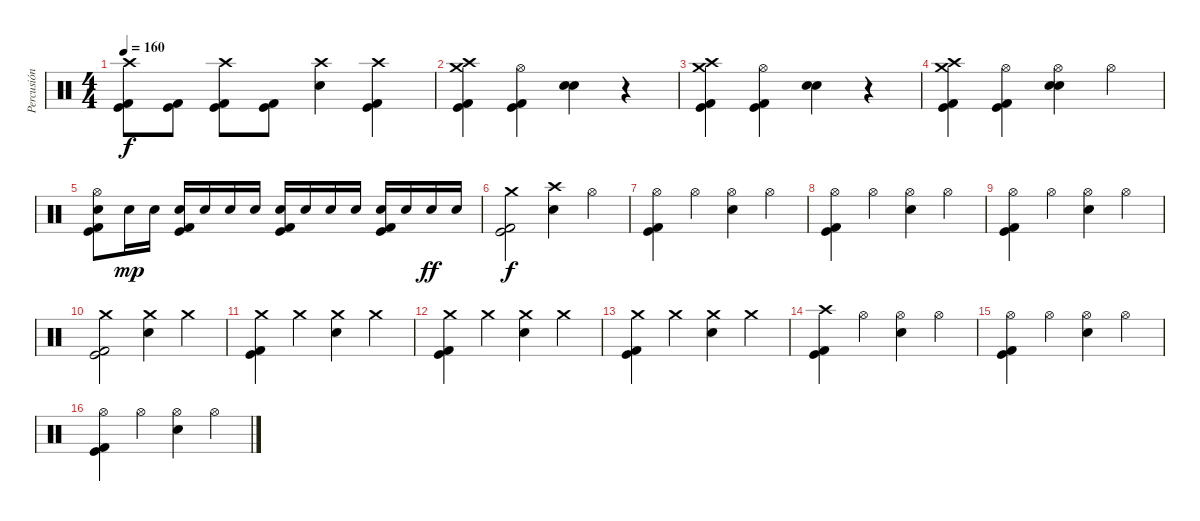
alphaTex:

\track ("Percusión" "Percusión") {instrument percussion}
\staff {score}
\articulation defaults
\ts (4 4)
\tempo 160
\clef neutral
\ks c
("Crash high (hit)" "Kick (hit)" "Kick (hit) 2").8{dy f} ("Kick (hit)" "Kick (hit) 2").8 ("Crash high (hit)" "Kick (hit)" "Kick (hit) 2").8 ("Kick (hit)" "Kick (hit) 2").8 ("Crash high (hit)" "Electric Snare (hit)").4 ("Crash high (hit)" "Kick (hit)" "Kick (hit) 2").4 |
("Crash medium (hit)" "Crash high (hit)" "Kick (hit)" "Kick (hit) 2").4 ("Hi-Hat (open)" "Kick (hit)" "Kick (hit) 2").4 ("Electric Snare (hit)" "Electric Snare (hit)").4 r.4 |
("Crash medium (hit)" "Crash high (hit)" "Kick (hit)" "Kick (hit) 2").4 ("Hi-Hat (open)" "Kick (hit)" "Kick (hit) 2").4 ("Electric Snare (hit)" "Electric Snare (hit)").4 r.4 |
("Crash medium (hit)" "Crash high (hit)" "Kick (hit)" "Kick (hit) 2").4 ("Hi-Hat (open)" "Kick (hit)" "Kick (hit) 2").4 ("Hi-Hat (open)" "Electric Snare (hit)" "Electric Snare (hit)").4 "Hi-Hat (open)".4 |
("Hi-Hat (open)" "Electric Snare (hit)" "Kick (hit)" "Kick (hit) 2").8 "Electric Snare (hit)".16{dy mp} "Electric Snare (hit)".16 ("Electric Snare (hit)" "Kick (hit)" "Kick (hit) 2").16 "Electric Snare (hit)".16 "Electric Snare (hit)".16 "Electric Snare (hit)".16 ("Electric Snare (hit)" "Kick (hit)" "Kick (hit) 2").16 "Electric Snare (hit)".16 "Electric Snare (hit)".16 "Electric Snare (hit)".16 ("Electric Snare (hit)" "Kick (hit)" "Kick (hit) 2").16 "Electric Snare (hit)".16 "Electric Snare (hit)".16{dy ff} "Electric Snare (hit)".16 |
("Crash medium (hit)" "Kick (hit)" "Kick (hit) 2").2{dy f} ("Crash high (hit)" "Electric Snare (hit)").4 "Hi-Hat (open)".4 |
("Hi-Hat (open)" "Kick (hit)" "Kick (hit) 2").4 "Hi-Hat (open)".4 ("Hi-Hat (open)" "Electric Snare (hit)").4 "Hi-Hat (open)".4 |
("Hi-Hat (open)" "Kick (hit)" "Kick (hit) 2").4 "Hi-Hat (open)".4 ("Hi-Hat (open)" "Electric Snare (hit)").4 "Hi-Hat (open)".4 |
("Hi-Hat (open)" "Kick (hit)" "Kick (hit) 2").4 "Hi-Hat (open)".4 ("Hi-Hat (open)" "Electric Snare (hit)").4 "Hi-Hat (open)".4 |
("Crash medium (hit)" "Kick (hit)" "Kick (hit) 2").2 ("Crash medium (hit)" "Electric Snare (hit)").4 "Crash medium (hit)".4 |
("Crash medium (hit)" "Kick (hit)" "Kick (hit) 2").4 "Crash medium (hit)".4 ("Crash medium (hit)" "Electric Snare (hit)").4 "Crash medium (hit)".4 |
("Crash medium (hit)" "Kick (hit)" "Kick (hit) 2").4 "Crash medium (hit)".4 ("Crash medium (hit)" "Electric Snare (hit)").4 "Crash medium (hit)".4 |
("Crash medium (hit)" "Kick (hit)" "Kick (hit) 2").4 "Crash medium (hit)".4 ("Crash medium (hit)" "Electric Snare (hit)").4 "Crash medium (hit)".4 |
("Crash high (hit)" "Kick (hit)" "Kick (hit) 2").4 "Hi-Hat (open)".4 ("Hi-Hat (open)" "Electric Snare (hit)").4 "Hi-Hat (open)".4 |
("Hi-Hat (open)" "Kick (hit)" "Kick (hit) 2").4 "Hi-Hat (open)".4 ("Hi-Hat (open)" "Electric Snare (hit)").4 "Hi-Hat (open)".4 |
("Hi-Hat (open)" "Kick (hit)" "Kick (hit) 2").4 "Hi-Hat (open)".4 ("Hi-Hat (open)" "Electric Snare (hit)").4 "Hi-Hat (open)".4
